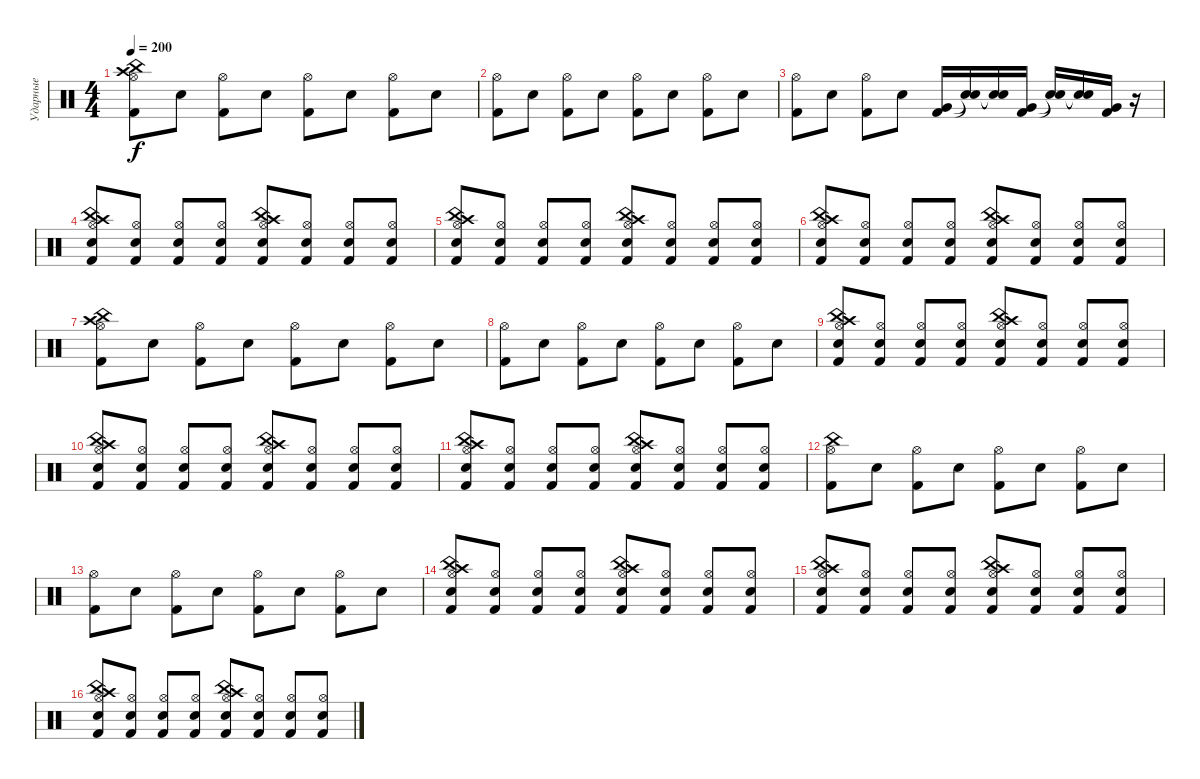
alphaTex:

\track ("Ударные" "Ударные") {instrument percussion}
\staff {score}
\articulation defaults
\ts (4 4)
\tempo 200
\clef neutral
\ks c
("Kick (hit) 2" "Hi-Hat (open)" "Crash high (hit)" "China (hit)").8{dy f} "Electric Snare (hit)".8 ("Kick (hit) 2" "Hi-Hat (open)").8 "Electric Snare (hit)".8 ("Kick (hit) 2" "Hi-Hat (open)").8 "Electric Snare (hit)".8 ("Kick (hit) 2" "Hi-Hat (open)").8 "Electric Snare (hit)".8 |
("Kick (hit) 2" "Hi-Hat (open)").8 "Electric Snare (hit)".8 ("Kick (hit) 2" "Hi-Hat (open)").8 "Electric Snare (hit)".8 ("Kick (hit) 2" "Hi-Hat (open)").8 "Electric Snare (hit)".8 ("Kick (hit) 2" "Hi-Hat (open)").8 "Electric Snare (hit)".8 |
("Kick (hit) 2" "Hi-Hat (open)").8 "Electric Snare (hit)".8 ("Kick (hit) 2" "Hi-Hat (open)").8 "Electric Snare (hit)".8 ("Kick (hit) 2" "Very Low Tom (hit)").16 ("Electric Snare (hit)"{t} "Snare (hit)"{t}).16 ("Snare (hit) 2"{t} "Snare (hit)"{t}).16 ("Kick (hit) 2" "Very Low Tom (hit)").16 ("Electric Snare (hit)"{t} "Snare (hit)"{t}).16 ("Electric Snare (hit)"{t} "Snare (hit)"{t}).16 ("Kick (hit) 2" "Very Low Tom (hit)").16 r.16 |
("Kick (hit) 2" "Electric Snare (hit)" "Hi-Hat (open)" "Crash high (hit)" "China (hit)").8 ("Hi-Hat (open)" "Kick (hit) 2" "Electric Snare (hit)").8 ("Electric Snare (hit)" "Kick (hit) 2" "Hi-Hat (open)").8 ("Hi-Hat (open)" "Kick (hit) 2" "Electric Snare (hit)").8 ("Electric Snare (hit)" "Kick (hit) 2" "Hi-Hat (open)" "China (hit)" "Crash high (hit)").8 ("Hi-Hat (open)" "Kick (hit) 2" "Electric Snare (hit)").8 ("Electric Snare (hit)" "Kick (hit) 2" "Hi-Hat (open)").8 ("Hi-Hat (open)" "Kick (hit) 2" "Electric Snare (hit)").8 |
("Kick (hit) 2" "Electric Snare (hit)" "Hi-Hat (open)" "Crash high (hit)" "China (hit)").8 ("Hi-Hat (open)" "Kick (hit) 2" "Electric Snare (hit)").8 ("Electric Snare (hit)" "Kick (hit) 2" "Hi-Hat (open)").8 ("Hi-Hat (open)" "Kick (hit) 2" "Electric Snare (hit)").8 ("Electric Snare (hit)" "Kick (hit) 2" "Hi-Hat (open)" "China (hit)" "Crash high (hit)").8 ("Hi-Hat (open)" "Kick (hit) 2" "Electric Snare (hit)").8 ("Electric Snare (hit)" "Kick (hit) 2" "Hi-Hat (open)").8 ("Hi-Hat (open)" "Kick (hit) 2" "Electric Snare (hit)").8 |
("Kick (hit) 2" "Electric Snare (hit)" "Hi-Hat (open)" "Crash high (hit)" "China (hit)").8 ("Hi-Hat (open)" "Kick (hit) 2" "Electric Snare (hit)").8 ("Electric Snare (hit)" "Kick (hit) 2" "Hi-Hat (open)").8 ("Hi-Hat (open)" "Kick (hit) 2" "Electric Snare (hit)").8 ("Electric Snare (hit)" "Kick (hit) 2" "Hi-Hat (open)" "China (hit)" "Crash high (hit)").8 ("Hi-Hat (open)" "Kick (hit) 2" "Electric Snare (hit)").8 ("Electric Snare (hit)" "Kick (hit) 2" "Hi-Hat (open)").8 ("Hi-Hat (open)" "Kick (hit) 2" "Electric Snare (hit)").8 |
("Kick (hit) 2" "Hi-Hat (open)" "Crash high (hit)" "China (hit)").8 "Electric Snare (hit)".8 ("Kick (hit) 2" "Hi-Hat (open)").8 "Electric Snare (hit)".8 ("Kick (hit) 2" "Hi-Hat (open)").8 "Electric Snare (hit)".8 ("Kick (hit) 2" "Hi-Hat (open)").8 "Electric Snare (hit)".8 |
("Kick (hit) 2" "Hi-Hat (open)").8 "Electric Snare (hit)".8 ("Kick (hit) 2" "Hi-Hat (open)").8 "Electric Snare (hit)".8 ("Kick (hit) 2" "Hi-Hat (open)").8 "Electric Snare (hit)".8 ("Kick (hit) 2" "Hi-Hat (open)").8 "Electric Snare (hit)".8 |
("Kick (hit) 2" "Electric Snare (hit)" "Hi-Hat (open)" "China (hit)" "Crash high (hit)").8 ("Hi-Hat (open)" "Kick (hit) 2" "Electric Snare (hit)").8 ("Electric Snare (hit)" "Kick (hit) 2" "Hi-Hat (open)").8 ("Hi-Hat (open)" "Kick (hit) 2" "Electric Snare (hit)").8 ("Electric Snare (hit)" "Kick (hit) 2" "Hi-Hat (open)" "Crash high (hit)" "China (hit)").8 ("Hi-Hat (open)" "Kick (hit) 2" "Electric Snare (hit)").8 ("Electric Snare (hit)" "Kick (hit) 2" "Hi-Hat (open)").8 ("Hi-Hat (open)" "Kick (hit) 2" "Electric Snare (hit)").8 |
("Kick (hit) 2" "Electric Snare (hit)" "Hi-Hat (open)" "China (hit)" "Crash high (hit)").8 ("Hi-Hat (open)" "Kick (hit) 2" "Electric Snare (hit)").8 ("Electric Snare (hit)" "Kick (hit) 2" "Hi-Hat (open)").8 ("Hi-Hat (open)" "Kick (hit) 2" "Electric Snare (hit)").8 ("Electric Snare (hit)" "Kick (hit) 2" "Hi-Hat (open)" "Crash high (hit)" "China (hit)").8 ("Hi-Hat (open)" "Kick (hit) 2" "Electric Snare (hit)").8 ("Electric Snare (hit)" "Kick (hit) 2" "Hi-Hat (open)").8 ("Hi-Hat (open)" "Kick (hit) 2" "Electric Snare (hit)").8 |
("Kick (hit) 2" "Electric Snare (hit)" "Hi-Hat (open)" "China (hit)" "Crash high (hit)").8 ("Hi-Hat (open)" "Kick (hit) 2" "Electric Snare (hit)").8 ("Electric Snare (hit)" "Kick (hit) 2" "Hi-Hat (open)").8 ("Hi-Hat (open)" "Kick (hit) 2" "Electric Snare (hit)").8 ("Electric Snare (hit)" "Kick (hit) 2" "Hi-Hat (open)" "Crash high (hit)" "China (hit)").8 ("Hi-Hat (open)" "Kick (hit) 2" "Electric Snare (hit)").8 ("Electric Snare (hit)" "Kick (hit) 2" "Hi-Hat (open)").8 ("Hi-Hat (open)" "Kick (hit) 2" "Electric Snare (hit)").8 |
("Kick (hit) 2" "Hi-Hat (open)" "China (hit)").8 "Electric Snare (hit)".8 ("Kick (hit) 2" "Hi-Hat (open)").8 "Electric Snare (hit)".8 ("Kick (hit) 2" "Hi-Hat (open)").8 "Electric Snare (hit)".8 ("Kick (hit) 2" "Hi-Hat (open)").8 "Electric Snare (hit)".8 |
("Kick (hit) 2" "Hi-Hat (open)").8 "Electric Snare (hit)".8 ("Kick (hit) 2" "Hi-Hat (open)").8 "Electric Snare (hit)".8 ("Kick (hit) 2" "Hi-Hat (open)").8 "Electric Snare (hit)".8 ("Kick (hit) 2" "Hi-Hat (open)").8 "Electric Snare (hit)".8 |
("Kick (hit) 2" "Electric Snare (hit)" "Hi-Hat (open)" "China (hit)" "Crash high (hit)").8 ("Hi-Hat (open)" "Kick (hit) 2" "Electric Snare (hit)").8 ("Electric Snare (hit)" "Kick (hit) 2" "Hi-Hat (open)").8 ("Hi-Hat (open)" "Kick (hit) 2" "Electric Snare (hit)").8 ("Electric Snare (hit)" "Kick (hit) 2" "Hi-Hat (open)" "Crash high (hit)" "China (hit)").8 ("Hi-Hat (open)" "Kick (hit) 2" "Electric Snare (hit)").8 ("Electric Snare (hit)" "Kick (hit) 2" "Hi-Hat (open)").8 ("Hi-Hat (open)" "Kick (hit) 2" "Electric Snare (hit)").8 |
("Kick (hit) 2" "Electric Snare (hit)" "Hi-Hat (open)" "China (hit)" "Crash high (hit)").8 ("Hi-Hat (open)" "Kick (hit) 2" "Electric Snare (hit)").8 ("Electric Snare (hit)" "Kick (hit) 2" "Hi-Hat (open)").8 ("Hi-Hat (open)" "Kick (hit) 2" "Electric Snare (hit)").8 ("Electric Snare (hit)" "Kick (hit) 2" "Hi-Hat (open)" "Crash high (hit)" "China (hit)").8 ("Hi-Hat (open)" "Kick (hit) 2" "Electric Snare (hit)").8 ("Electric Snare (hit)" "Kick (hit) 2" "Hi-Hat (open)").8 ("Hi-Hat (open)" "Kick (hit) 2" "Electric Snare (hit)").8 |
("Kick (hit) 2" "Electric Snare (hit)" "Hi-Hat (open)" "China (hit)" "Crash high (hit)").8 ("Hi-Hat (open)" "Kick (hit) 2" "Electric Snare (hit)").8 ("Electric Snare (hit)" "Kick (hit) 2" "Hi-Hat (open)").8 ("Hi-Hat (open)" "Kick (hit) 2" "Electric Snare (hit)").8 ("Electric Snare (hit)" "Kick (hit) 2" "Hi-Hat (open)" "Crash high (hit)" "China (hit)").8 ("Hi-Hat (open)" "Kick (hit) 2" "Electric Snare (hit)").8 ("Electric Snare (hit)" "Kick (hit) 2" "Hi-Hat (open)").8 ("Hi-Hat (open)" "Kick (hit) 2" "Electric Snare (hit)").8
